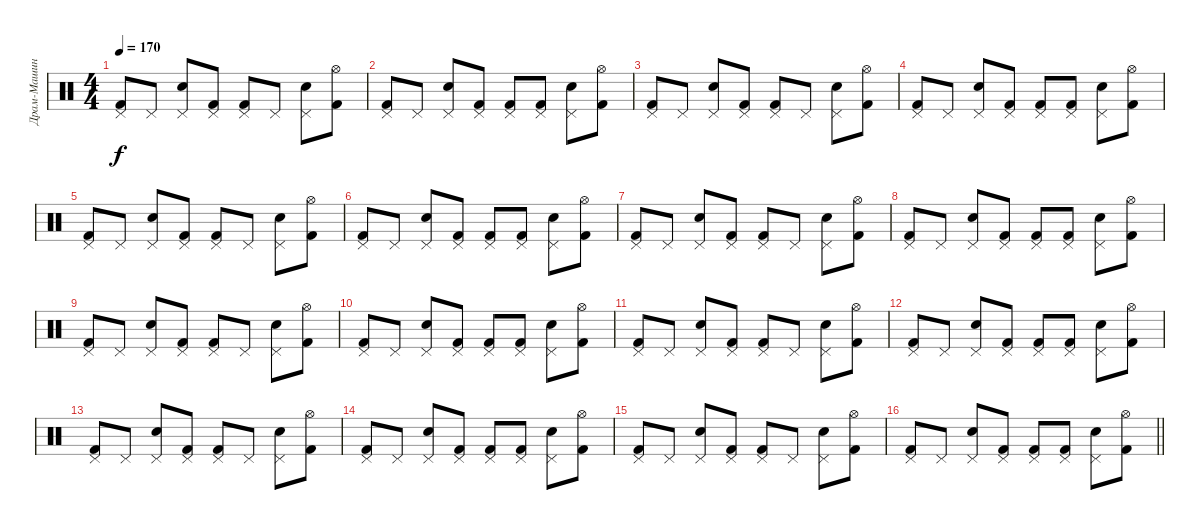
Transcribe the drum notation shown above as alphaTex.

\track ("Драм-Машина" "Драм-Машин") {instrument percussion}
\staff {score}
\articulation defaults
\ts (4 4)
\tempo 170
\clef neutral
\ks c
("Pedal Hi-Hat (hit)" "Kick (hit) 2").8{dy f} "Pedal Hi-Hat (hit)".8 ("Pedal Hi-Hat (hit)" "Electric Snare (hit)").8 ("Pedal Hi-Hat (hit)" "Kick (hit) 2").8 ("Pedal Hi-Hat (hit)" "Kick (hit) 2").8 "Pedal Hi-Hat (hit)".8 ("Pedal Hi-Hat (hit)" "Electric Snare (hit)").8 ("Hi-Hat (open)" "Kick (hit) 2").8 |
("Pedal Hi-Hat (hit)" "Kick (hit) 2").8 "Pedal Hi-Hat (hit)".8 ("Pedal Hi-Hat (hit)" "Electric Snare (hit)").8 ("Pedal Hi-Hat (hit)" "Kick (hit) 2").8 ("Pedal Hi-Hat (hit)" "Kick (hit) 2").8 ("Pedal Hi-Hat (hit)" "Kick (hit) 2").8 ("Pedal Hi-Hat (hit)" "Electric Snare (hit)").8 ("Hi-Hat (open)" "Kick (hit) 2").8 |
("Pedal Hi-Hat (hit)" "Kick (hit) 2").8 "Pedal Hi-Hat (hit)".8 ("Pedal Hi-Hat (hit)" "Electric Snare (hit)").8 ("Pedal Hi-Hat (hit)" "Kick (hit) 2").8 ("Pedal Hi-Hat (hit)" "Kick (hit) 2").8 "Pedal Hi-Hat (hit)".8 ("Pedal Hi-Hat (hit)" "Electric Snare (hit)").8 ("Hi-Hat (open)" "Kick (hit) 2").8 |
("Pedal Hi-Hat (hit)" "Kick (hit) 2").8 "Pedal Hi-Hat (hit)".8 ("Pedal Hi-Hat (hit)" "Electric Snare (hit)").8 ("Pedal Hi-Hat (hit)" "Kick (hit) 2").8 ("Pedal Hi-Hat (hit)" "Kick (hit) 2").8 ("Pedal Hi-Hat (hit)" "Kick (hit) 2").8 ("Pedal Hi-Hat (hit)" "Electric Snare (hit)").8 ("Hi-Hat (open)" "Kick (hit) 2").8 |
("Pedal Hi-Hat (hit)" "Kick (hit) 2").8 "Pedal Hi-Hat (hit)".8 ("Pedal Hi-Hat (hit)" "Electric Snare (hit)").8 ("Pedal Hi-Hat (hit)" "Kick (hit) 2").8 ("Pedal Hi-Hat (hit)" "Kick (hit) 2").8 "Pedal Hi-Hat (hit)".8 ("Pedal Hi-Hat (hit)" "Electric Snare (hit)").8 ("Hi-Hat (open)" "Kick (hit) 2").8 |
("Pedal Hi-Hat (hit)" "Kick (hit) 2").8 "Pedal Hi-Hat (hit)".8 ("Pedal Hi-Hat (hit)" "Electric Snare (hit)").8 ("Pedal Hi-Hat (hit)" "Kick (hit) 2").8 ("Pedal Hi-Hat (hit)" "Kick (hit) 2").8 ("Pedal Hi-Hat (hit)" "Kick (hit) 2").8 ("Pedal Hi-Hat (hit)" "Electric Snare (hit)").8 ("Hi-Hat (open)" "Kick (hit) 2").8 |
("Pedal Hi-Hat (hit)" "Kick (hit) 2").8 "Pedal Hi-Hat (hit)".8 ("Pedal Hi-Hat (hit)" "Electric Snare (hit)").8 ("Pedal Hi-Hat (hit)" "Kick (hit) 2").8 ("Pedal Hi-Hat (hit)" "Kick (hit) 2").8 "Pedal Hi-Hat (hit)".8 ("Pedal Hi-Hat (hit)" "Electric Snare (hit)").8 ("Hi-Hat (open)" "Kick (hit) 2").8 |
("Pedal Hi-Hat (hit)" "Kick (hit) 2").8 "Pedal Hi-Hat (hit)".8 ("Pedal Hi-Hat (hit)" "Electric Snare (hit)").8 ("Pedal Hi-Hat (hit)" "Kick (hit) 2").8 ("Pedal Hi-Hat (hit)" "Kick (hit) 2").8 ("Pedal Hi-Hat (hit)" "Kick (hit) 2").8 ("Pedal Hi-Hat (hit)" "Electric Snare (hit)").8 ("Hi-Hat (open)" "Kick (hit) 2").8 |
("Pedal Hi-Hat (hit)" "Kick (hit) 2").8 "Pedal Hi-Hat (hit)".8 ("Pedal Hi-Hat (hit)" "Electric Snare (hit)").8 ("Pedal Hi-Hat (hit)" "Kick (hit) 2").8 ("Pedal Hi-Hat (hit)" "Kick (hit) 2").8 "Pedal Hi-Hat (hit)".8 ("Pedal Hi-Hat (hit)" "Electric Snare (hit)").8 ("Hi-Hat (open)" "Kick (hit) 2").8 |
("Pedal Hi-Hat (hit)" "Kick (hit) 2").8 "Pedal Hi-Hat (hit)".8 ("Pedal Hi-Hat (hit)" "Electric Snare (hit)").8 ("Pedal Hi-Hat (hit)" "Kick (hit) 2").8 ("Pedal Hi-Hat (hit)" "Kick (hit) 2").8 ("Pedal Hi-Hat (hit)" "Kick (hit) 2").8 ("Pedal Hi-Hat (hit)" "Electric Snare (hit)").8 ("Hi-Hat (open)" "Kick (hit) 2").8 |
("Pedal Hi-Hat (hit)" "Kick (hit) 2").8 "Pedal Hi-Hat (hit)".8 ("Pedal Hi-Hat (hit)" "Electric Snare (hit)").8 ("Pedal Hi-Hat (hit)" "Kick (hit) 2").8 ("Pedal Hi-Hat (hit)" "Kick (hit) 2").8 "Pedal Hi-Hat (hit)".8 ("Pedal Hi-Hat (hit)" "Electric Snare (hit)").8 ("Hi-Hat (open)" "Kick (hit) 2").8 |
("Pedal Hi-Hat (hit)" "Kick (hit) 2").8 "Pedal Hi-Hat (hit)".8 ("Pedal Hi-Hat (hit)" "Electric Snare (hit)").8 ("Pedal Hi-Hat (hit)" "Kick (hit) 2").8 ("Pedal Hi-Hat (hit)" "Kick (hit) 2").8 ("Pedal Hi-Hat (hit)" "Kick (hit) 2").8 ("Pedal Hi-Hat (hit)" "Electric Snare (hit)").8 ("Hi-Hat (open)" "Kick (hit) 2").8 |
("Pedal Hi-Hat (hit)" "Kick (hit) 2").8 "Pedal Hi-Hat (hit)".8 ("Pedal Hi-Hat (hit)" "Electric Snare (hit)").8 ("Pedal Hi-Hat (hit)" "Kick (hit) 2").8 ("Pedal Hi-Hat (hit)" "Kick (hit) 2").8 "Pedal Hi-Hat (hit)".8 ("Pedal Hi-Hat (hit)" "Electric Snare (hit)").8 ("Hi-Hat (open)" "Kick (hit) 2").8 |
("Pedal Hi-Hat (hit)" "Kick (hit) 2").8 "Pedal Hi-Hat (hit)".8 ("Pedal Hi-Hat (hit)" "Electric Snare (hit)").8 ("Pedal Hi-Hat (hit)" "Kick (hit) 2").8 ("Pedal Hi-Hat (hit)" "Kick (hit) 2").8 ("Pedal Hi-Hat (hit)" "Kick (hit) 2").8 ("Pedal Hi-Hat (hit)" "Electric Snare (hit)").8 ("Hi-Hat (open)" "Kick (hit) 2").8 |
("Pedal Hi-Hat (hit)" "Kick (hit) 2").8 "Pedal Hi-Hat (hit)".8 ("Pedal Hi-Hat (hit)" "Electric Snare (hit)").8 ("Pedal Hi-Hat (hit)" "Kick (hit) 2").8 ("Pedal Hi-Hat (hit)" "Kick (hit) 2").8 "Pedal Hi-Hat (hit)".8 ("Pedal Hi-Hat (hit)" "Electric Snare (hit)").8 ("Hi-Hat (open)" "Kick (hit) 2").8 |
\barLineRight lightlight
("Pedal Hi-Hat (hit)" "Kick (hit) 2").8 "Pedal Hi-Hat (hit)".8 ("Pedal Hi-Hat (hit)" "Electric Snare (hit)").8 ("Pedal Hi-Hat (hit)" "Kick (hit) 2").8 ("Pedal Hi-Hat (hit)" "Kick (hit) 2").8 ("Pedal Hi-Hat (hit)" "Kick (hit) 2").8 ("Pedal Hi-Hat (hit)" "Electric Snare (hit)").8 ("Hi-Hat (open)" "Kick (hit) 2").8
